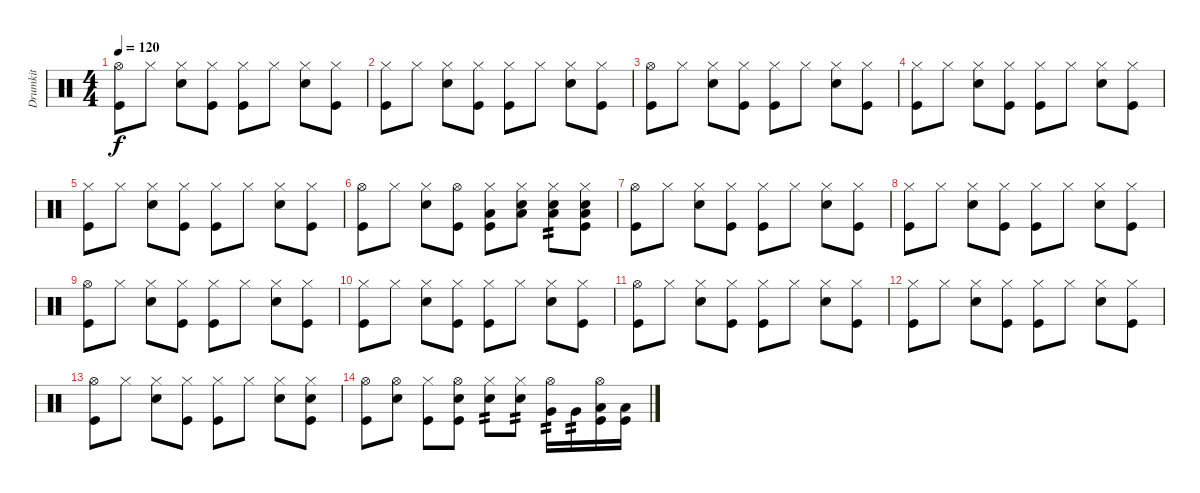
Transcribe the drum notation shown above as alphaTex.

\track ("Drumkit" "Drumkit") {instrument percussion}
\staff {score}
\articulation defaults
\ts (4 4)
\tempo 120
\clef neutral
\ks c
("Kick (hit)" "Hi-Hat (open)").8{dy f} "Hi-Hat (closed)".8 ("Snare (hit) 2" "Hi-Hat (closed)").8 ("Kick (hit)" "Hi-Hat (closed)").8 ("Kick (hit)" "Hi-Hat (closed)").8 "Hi-Hat (closed)".8 ("Snare (hit) 2" "Hi-Hat (closed)").8 ("Kick (hit)" "Hi-Hat (closed)").8 |
("Kick (hit)" "Hi-Hat (closed)").8 "Hi-Hat (closed)".8 ("Snare (hit) 2" "Hi-Hat (closed)").8 ("Kick (hit)" "Hi-Hat (closed)").8 ("Kick (hit)" "Hi-Hat (closed)").8 "Hi-Hat (closed)".8 ("Snare (hit) 2" "Hi-Hat (closed)").8 ("Kick (hit)" "Hi-Hat (closed)").8 |
("Kick (hit)" "Hi-Hat (open)").8 "Hi-Hat (closed)".8 ("Snare (hit) 2" "Hi-Hat (closed)").8 ("Kick (hit)" "Hi-Hat (closed)").8 ("Kick (hit)" "Hi-Hat (closed)").8 "Hi-Hat (closed)".8 ("Snare (hit) 2" "Hi-Hat (closed)").8 ("Kick (hit)" "Hi-Hat (closed)").8 |
("Kick (hit)" "Hi-Hat (closed)").8 "Hi-Hat (closed)".8 ("Snare (hit) 2" "Hi-Hat (closed)").8 ("Kick (hit)" "Hi-Hat (closed)").8 ("Kick (hit)" "Hi-Hat (closed)").8 "Hi-Hat (closed)".8 ("Snare (hit) 2" "Hi-Hat (closed)").8 ("Kick (hit)" "Hi-Hat (closed)").8 |
("Kick (hit)" "Hi-Hat (closed)").8 "Hi-Hat (closed)".8 ("Snare (hit) 2" "Hi-Hat (closed)").8 ("Kick (hit)" "Hi-Hat (closed)").8 ("Kick (hit)" "Hi-Hat (closed)").8 "Hi-Hat (closed)".8 ("Snare (hit) 2" "Hi-Hat (closed)").8 ("Kick (hit)" "Hi-Hat (closed)").8 |
("Kick (hit)" "Hi-Hat (open)").8 "Hi-Hat (closed)".8 ("Snare (hit) 2" "Hi-Hat (closed)").8 ("Kick (hit)" "Hi-Hat (open)").8 ("Kick (hit)" "Hi-Hat (closed)" "Low Tom (hit)").8 ("Hi-Hat (closed)" "Low Tom (hit)" "Snare (hit) 2").8 ("Hi-Hat (closed)" "Low Floor Tom (hit)" "Snare (hit) 2").8{tp 2} ("Kick (hit)" "Hi-Hat (closed)" "Low Floor Tom (hit)" "Snare (hit) 2").8 |
("Kick (hit)" "Hi-Hat (open)").8 "Hi-Hat (closed)".8 ("Snare (hit) 2" "Hi-Hat (closed)").8 ("Kick (hit)" "Hi-Hat (closed)").8 ("Kick (hit)" "Hi-Hat (closed)").8 "Hi-Hat (closed)".8 ("Snare (hit) 2" "Hi-Hat (closed)").8 ("Kick (hit)" "Hi-Hat (closed)").8 |
("Kick (hit)" "Hi-Hat (closed)").8 "Hi-Hat (closed)".8 ("Snare (hit) 2" "Hi-Hat (closed)").8 ("Kick (hit)" "Hi-Hat (closed)").8 ("Kick (hit)" "Hi-Hat (closed)").8 "Hi-Hat (closed)".8 ("Snare (hit) 2" "Hi-Hat (closed)").8 ("Kick (hit)" "Hi-Hat (closed)").8 |
("Kick (hit)" "Hi-Hat (open)").8 "Hi-Hat (closed)".8 ("Snare (hit) 2" "Hi-Hat (closed)").8 ("Kick (hit)" "Hi-Hat (closed)").8 ("Kick (hit)" "Hi-Hat (closed)").8 "Hi-Hat (closed)".8 ("Snare (hit) 2" "Hi-Hat (closed)").8 ("Kick (hit)" "Hi-Hat (closed)").8 |
("Kick (hit)" "Hi-Hat (closed)").8 "Hi-Hat (closed)".8 ("Snare (hit) 2" "Hi-Hat (closed)").8 ("Kick (hit)" "Hi-Hat (closed)").8 ("Kick (hit)" "Hi-Hat (closed)").8 "Hi-Hat (closed)".8 ("Snare (hit) 2" "Hi-Hat (closed)").8 ("Kick (hit)" "Hi-Hat (closed)").8 |
("Kick (hit)" "Hi-Hat (open)").8 "Hi-Hat (closed)".8 ("Snare (hit) 2" "Hi-Hat (closed)").8 ("Kick (hit)" "Hi-Hat (closed)").8 ("Kick (hit)" "Hi-Hat (closed)").8 "Hi-Hat (closed)".8 ("Snare (hit) 2" "Hi-Hat (closed)").8 ("Kick (hit)" "Hi-Hat (closed)").8 |
("Kick (hit)" "Hi-Hat (closed)").8 "Hi-Hat (closed)".8 ("Snare (hit) 2" "Hi-Hat (closed)").8 ("Kick (hit)" "Hi-Hat (closed)").8 ("Kick (hit)" "Hi-Hat (closed)").8 "Hi-Hat (closed)".8 ("Snare (hit) 2" "Hi-Hat (closed)").8 ("Kick (hit)" "Hi-Hat (closed)").8 |
("Kick (hit)" "Hi-Hat (open)").8 "Hi-Hat (closed)".8 ("Snare (hit) 2" "Hi-Hat (closed)").8 ("Kick (hit)" "Hi-Hat (closed)").8 ("Kick (hit)" "Hi-Hat (closed)").8 "Hi-Hat (closed)".8 ("Snare (hit) 2" "Hi-Hat (closed)").8 ("Kick (hit)" "Hi-Hat (closed)" "Snare (hit) 2").8 |
("Kick (hit)" "Hi-Hat (open)").8 ("Hi-Hat (open)" "Snare (hit) 2").8 ("Hi-Hat (closed)" "Kick (hit)").8 ("Kick (hit)" "Hi-Hat (open)" "Snare (hit) 2").8 ("Hi-Hat (closed)" "Snare (hit) 2").8{tp 2} ("Hi-Hat (closed)" "Snare (hit) 2").8{tp 2} ("Hi-Hat (open)" "Very Low Tom (hit)").16{tp 2} "Very Low Tom (hit)".16{tp 2} ("Hi-Hat (open)" "Kick (hit)" "Low Floor Tom (hit)").16 ("Low Floor Tom (hit)" "Kick (hit)").16
